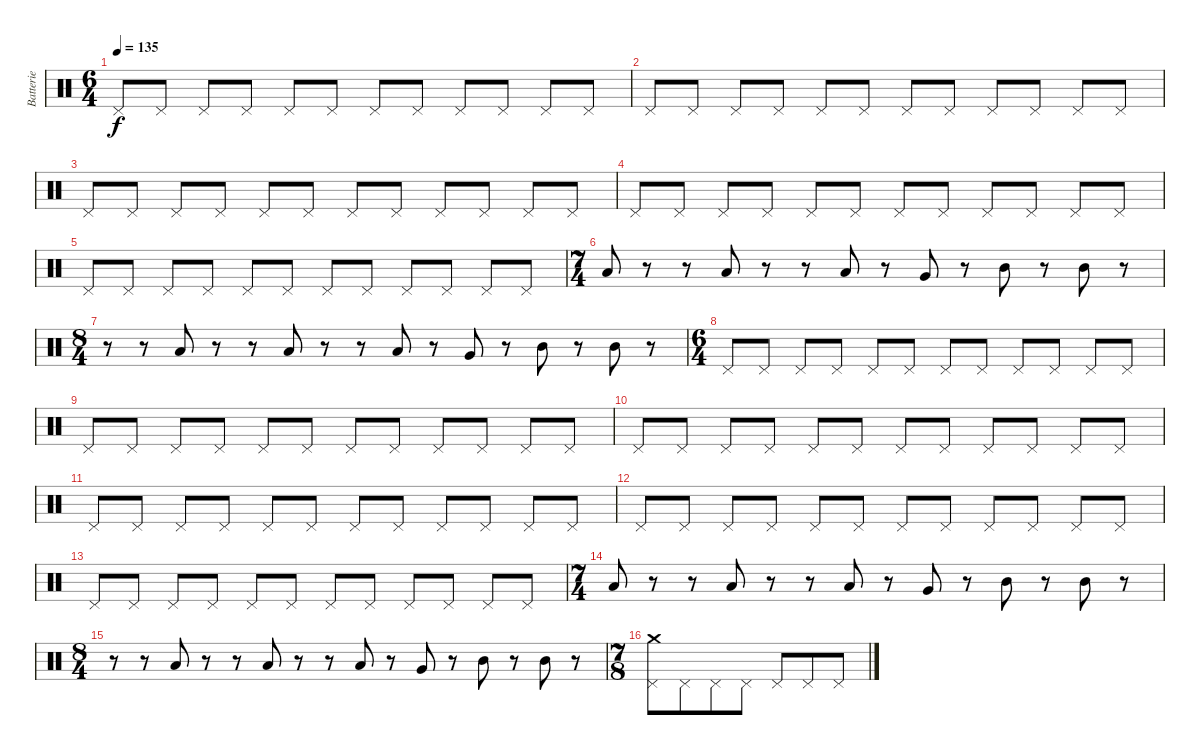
\track ("Batterie" "Batterie") {instrument percussion}
\staff {score}
\articulation defaults
\ts (6 4)
\tempo 135
\clef neutral
\ks c "Pedal Hi-Hat (hit)".8{dy f} "Pedal Hi-Hat (hit)".8 "Pedal Hi-Hat (hit)".8 "Pedal Hi-Hat (hit)".8 "Pedal Hi-Hat (hit)".8 "Pedal Hi-Hat (hit)".8 "Pedal Hi-Hat (hit)".8 "Pedal Hi-Hat (hit)".8 "Pedal Hi-Hat (hit)".8 "Pedal Hi-Hat (hit)".8 "Pedal Hi-Hat (hit)".8 "Pedal Hi-Hat (hit)".8
|
"Pedal Hi-Hat (hit)".8 "Pedal Hi-Hat (hit)".8 "Pedal Hi-Hat (hit)".8 "Pedal Hi-Hat (hit)".8 "Pedal Hi-Hat (hit)".8 "Pedal Hi-Hat (hit)".8 "Pedal Hi-Hat (hit)".8 "Pedal Hi-Hat (hit)".8 "Pedal Hi-Hat (hit)".8 "Pedal Hi-Hat (hit)".8 "Pedal Hi-Hat (hit)".8 "Pedal Hi-Hat (hit)".8 |
"Pedal Hi-Hat (hit)".8 "Pedal Hi-Hat (hit)".8 "Pedal Hi-Hat (hit)".8 "Pedal Hi-Hat (hit)".8 "Pedal Hi-Hat (hit)".8 "Pedal Hi-Hat (hit)".8 "Pedal Hi-Hat (hit)".8 "Pedal Hi-Hat (hit)".8 "Pedal Hi-Hat (hit)".8 "Pedal Hi-Hat (hit)".8 "Pedal Hi-Hat (hit)".8 "Pedal Hi-Hat (hit)".8 |
"Pedal Hi-Hat (hit)".8 "Pedal Hi-Hat (hit)".8 "Pedal Hi-Hat (hit)".8 "Pedal Hi-Hat (hit)".8 "Pedal Hi-Hat (hit)".8 "Pedal Hi-Hat (hit)".8 "Pedal Hi-Hat (hit)".8 "Pedal Hi-Hat (hit)".8 "Pedal Hi-Hat (hit)".8 "Pedal Hi-Hat (hit)".8 "Pedal Hi-Hat (hit)".8 "Pedal Hi-Hat (hit)".8 |
"Pedal Hi-Hat (hit)".8 "Pedal Hi-Hat (hit)".8 "Pedal Hi-Hat (hit)".8 "Pedal Hi-Hat (hit)".8 "Pedal Hi-Hat (hit)".8 "Pedal Hi-Hat (hit)".8 "Pedal Hi-Hat (hit)".8 "Pedal Hi-Hat (hit)".8 "Pedal Hi-Hat (hit)".8 "Pedal Hi-Hat (hit)".8 "Pedal Hi-Hat (hit)".8 "Pedal Hi-Hat (hit)".8 |
\ts (7 4)
"Low Tom (hit)".8 r.8 r.8 "Low Tom (hit)".8 r.8 r.8 "Low Tom (hit)".8 r.8 "Very Low Tom (hit)".8 r.8 "Mid Tom (hit)".8 r.8 "Mid Tom (hit)".8 r.8 |
\ts (8 4)
r.8 r.8 "Low Tom (hit)".8 r.8 r.8 "Low Tom (hit)".8 r.8 r.8 "Low Tom (hit)".8 r.8 "Very Low Tom (hit)".8 r.8 "Mid Tom (hit)".8 r.8 "Mid Tom (hit)".8 r.8 |
\ts (6 4)
"Pedal Hi-Hat (hit)".8 "Pedal Hi-Hat (hit)".8 "Pedal Hi-Hat (hit)".8 "Pedal Hi-Hat (hit)".8 "Pedal Hi-Hat (hit)".8 "Pedal Hi-Hat (hit)".8 "Pedal Hi-Hat (hit)".8 "Pedal Hi-Hat (hit)".8 "Pedal Hi-Hat (hit)".8 "Pedal Hi-Hat (hit)".8 "Pedal Hi-Hat (hit)".8 "Pedal Hi-Hat (hit)".8 |
"Pedal Hi-Hat (hit)".8 "Pedal Hi-Hat (hit)".8 "Pedal Hi-Hat (hit)".8 "Pedal Hi-Hat (hit)".8 "Pedal Hi-Hat (hit)".8 "Pedal Hi-Hat (hit)".8 "Pedal Hi-Hat (hit)".8 "Pedal Hi-Hat (hit)".8 "Pedal Hi-Hat (hit)".8 "Pedal Hi-Hat (hit)".8 "Pedal Hi-Hat (hit)".8 "Pedal Hi-Hat (hit)".8 |
"Pedal Hi-Hat (hit)".8 "Pedal Hi-Hat (hit)".8 "Pedal Hi-Hat (hit)".8 "Pedal Hi-Hat (hit)".8 "Pedal Hi-Hat (hit)".8 "Pedal Hi-Hat (hit)".8 "Pedal Hi-Hat (hit)".8 "Pedal Hi-Hat (hit)".8 "Pedal Hi-Hat (hit)".8 "Pedal Hi-Hat (hit)".8 "Pedal Hi-Hat (hit)".8 "Pedal Hi-Hat (hit)".8 |
"Pedal Hi-Hat (hit)".8 "Pedal Hi-Hat (hit)".8 "Pedal Hi-Hat (hit)".8 "Pedal Hi-Hat (hit)".8 "Pedal Hi-Hat (hit)".8 "Pedal Hi-Hat (hit)".8 "Pedal Hi-Hat (hit)".8 "Pedal Hi-Hat (hit)".8 "Pedal Hi-Hat (hit)".8 "Pedal Hi-Hat (hit)".8 "Pedal Hi-Hat (hit)".8 "Pedal Hi-Hat (hit)".8 |
"Pedal Hi-Hat (hit)".8 "Pedal Hi-Hat (hit)".8 "Pedal Hi-Hat (hit)".8 "Pedal Hi-Hat (hit)".8 "Pedal Hi-Hat (hit)".8 "Pedal Hi-Hat (hit)".8 "Pedal Hi-Hat (hit)".8 "Pedal Hi-Hat (hit)".8 "Pedal Hi-Hat (hit)".8 "Pedal Hi-Hat (hit)".8 "Pedal Hi-Hat (hit)".8 "Pedal Hi-Hat (hit)".8 |
"Pedal Hi-Hat (hit)".8 "Pedal Hi-Hat (hit)".8 "Pedal Hi-Hat (hit)".8 "Pedal Hi-Hat (hit)".8 "Pedal Hi-Hat (hit)".8 "Pedal Hi-Hat (hit)".8 "Pedal Hi-Hat (hit)".8 "Pedal Hi-Hat (hit)".8 "Pedal Hi-Hat (hit)".8 "Pedal Hi-Hat (hit)".8 "Pedal Hi-Hat (hit)".8 "Pedal Hi-Hat (hit)".8 |
\ts (7 4)
"Low Tom (hit)".8 r.8 r.8 "Low Tom (hit)".8 r.8 r.8 "Low Tom (hit)".8 r.8 "Very Low Tom (hit)".8 r.8 "Mid Tom (hit)".8 r.8 "Mid Tom (hit)".8 r.8 |
\ts (8 4)
r.8 r.8 "Low Tom (hit)".8 r.8 r.8 "Low Tom (hit)".8 r.8 r.8 "Low Tom (hit)".8 r.8 "Very Low Tom (hit)".8 r.8 "Mid Tom (hit)".8 r.8 "Mid Tom (hit)".8 r.8 |
\ts (7 8)
("Pedal Hi-Hat (hit)" "Crash medium (hit)").8 "Pedal Hi-Hat (hit)".8 "Pedal Hi-Hat (hit)".8 "Pedal Hi-Hat (hit)".8 "Pedal Hi-Hat (hit)".8 "Pedal Hi-Hat (hit)".8 "Pedal Hi-Hat (hit)".8
